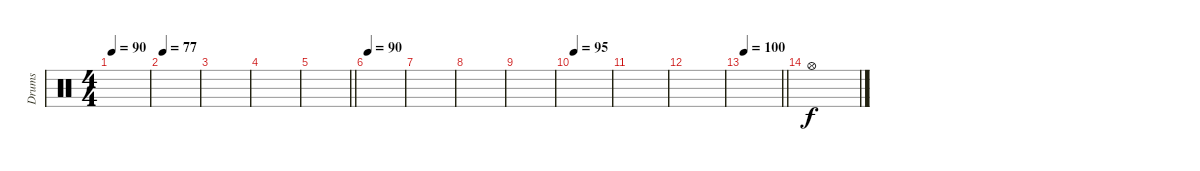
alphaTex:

\track ("Drums" "Drums") {instrument percussion}
\staff {score}
\articulation defaults
\ts (4 4)
\tempo 90
\clef neutral
\ks c
|
\tempo 77
|
|
|
\barLineRight lightlight
|
\tempo 90
|
|
|
|
\tempo 95
|
|
|
\tempo 100
\barLineRight lightlight
|
"Hi-Hat (open)".1
